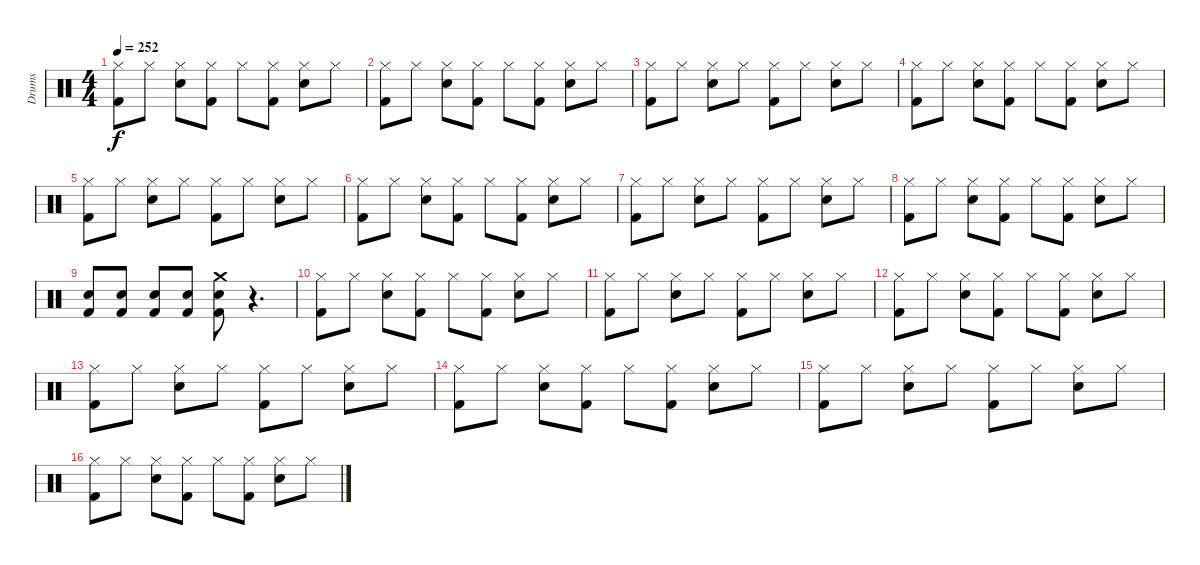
\track ("Drums" "Drums") {instrument percussion}
\staff {score}
\articulation defaults
\ts (4 4)
\tempo 252
\clef neutral
\ks c
("Kick (hit) 2" "Hi-Hat (closed)").8{dy f} "Hi-Hat (closed)".8 ("Snare (hit) 2" "Hi-Hat (closed)").8 ("Kick (hit) 2" "Hi-Hat (closed)").8 "Hi-Hat (closed)".8 ("Kick (hit) 2" "Hi-Hat (closed)").8 ("Snare (hit) 2" "Hi-Hat (closed)").8 "Hi-Hat (closed)".8 |
("Kick (hit) 2" "Hi-Hat (closed)").8 "Hi-Hat (closed)".8 ("Snare (hit) 2" "Hi-Hat (closed)").8 ("Kick (hit) 2" "Hi-Hat (closed)").8 "Hi-Hat (closed)".8 ("Kick (hit) 2" "Hi-Hat (closed)").8 ("Snare (hit) 2" "Hi-Hat (closed)").8 "Hi-Hat (closed)".8 |
("Kick (hit) 2" "Hi-Hat (closed)").8 "Hi-Hat (closed)".8 ("Snare (hit) 2" "Hi-Hat (closed)").8 "Hi-Hat (closed)".8 ("Kick (hit) 2" "Hi-Hat (closed)").8 "Hi-Hat (closed)".8 ("Snare (hit) 2" "Hi-Hat (closed)").8 "Hi-Hat (closed)".8 |
("Kick (hit) 2" "Hi-Hat (closed)").8 "Hi-Hat (closed)".8 ("Snare (hit) 2" "Hi-Hat (closed)").8 ("Kick (hit) 2" "Hi-Hat (closed)").8 "Hi-Hat (closed)".8 ("Kick (hit) 2" "Hi-Hat (closed)").8 ("Snare (hit) 2" "Hi-Hat (closed)").8 "Hi-Hat (closed)".8 |
("Kick (hit) 2" "Hi-Hat (closed)").8 "Hi-Hat (closed)".8 ("Snare (hit) 2" "Hi-Hat (closed)").8 "Hi-Hat (closed)".8 ("Kick (hit) 2" "Hi-Hat (closed)").8 "Hi-Hat (closed)".8 ("Snare (hit) 2" "Hi-Hat (closed)").8 "Hi-Hat (closed)".8 |
("Kick (hit) 2" "Hi-Hat (closed)").8 "Hi-Hat (closed)".8 ("Snare (hit) 2" "Hi-Hat (closed)").8 ("Kick (hit) 2" "Hi-Hat (closed)").8 "Hi-Hat (closed)".8 ("Kick (hit) 2" "Hi-Hat (closed)").8 ("Snare (hit) 2" "Hi-Hat (closed)").8 "Hi-Hat (closed)".8 |
("Kick (hit) 2" "Hi-Hat (closed)").8 "Hi-Hat (closed)".8 ("Snare (hit) 2" "Hi-Hat (closed)").8 "Hi-Hat (closed)".8 ("Kick (hit) 2" "Hi-Hat (closed)").8 "Hi-Hat (closed)".8 ("Snare (hit) 2" "Hi-Hat (closed)").8 "Hi-Hat (closed)".8 |
("Kick (hit) 2" "Hi-Hat (closed)").8 "Hi-Hat (closed)".8 ("Snare (hit) 2" "Hi-Hat (closed)").8 ("Kick (hit) 2" "Hi-Hat (closed)").8 "Hi-Hat (closed)".8 ("Kick (hit) 2" "Hi-Hat (closed)").8 ("Snare (hit) 2" "Hi-Hat (closed)").8 "Hi-Hat (closed)".8 |
("Kick (hit) 2" "Snare (hit) 2").8 ("Kick (hit) 2" "Snare (hit) 2").8 ("Kick (hit) 2" "Snare (hit) 2").8 ("Kick (hit) 2" "Snare (hit) 2").8 ("Kick (hit) 2" "Snare (hit) 2" "Crash medium (hit)").8 r.4{d} |
("Kick (hit) 2" "Hi-Hat (closed)").8 "Hi-Hat (closed)".8 ("Snare (hit) 2" "Hi-Hat (closed)").8 ("Kick (hit) 2" "Hi-Hat (closed)").8 "Hi-Hat (closed)".8 ("Kick (hit) 2" "Hi-Hat (closed)").8 ("Snare (hit) 2" "Hi-Hat (closed)").8 "Hi-Hat (closed)".8 |
("Kick (hit) 2" "Hi-Hat (closed)").8 "Hi-Hat (closed)".8 ("Snare (hit) 2" "Hi-Hat (closed)").8 "Hi-Hat (closed)".8 ("Kick (hit) 2" "Hi-Hat (closed)").8 "Hi-Hat (closed)".8 ("Snare (hit) 2" "Hi-Hat (closed)").8 "Hi-Hat (closed)".8 |
("Kick (hit) 2" "Hi-Hat (closed)").8 "Hi-Hat (closed)".8 ("Snare (hit) 2" "Hi-Hat (closed)").8 ("Kick (hit) 2" "Hi-Hat (closed)").8 "Hi-Hat (closed)".8 ("Kick (hit) 2" "Hi-Hat (closed)").8 ("Snare (hit) 2" "Hi-Hat (closed)").8 "Hi-Hat (closed)".8 |
("Kick (hit) 2" "Hi-Hat (closed)").8 "Hi-Hat (closed)".8 ("Snare (hit) 2" "Hi-Hat (closed)").8 "Hi-Hat (closed)".8 ("Kick (hit) 2" "Hi-Hat (closed)").8 "Hi-Hat (closed)".8 ("Snare (hit) 2" "Hi-Hat (closed)").8 "Hi-Hat (closed)".8 |
("Kick (hit) 2" "Hi-Hat (closed)").8 "Hi-Hat (closed)".8 ("Snare (hit) 2" "Hi-Hat (closed)").8 ("Kick (hit) 2" "Hi-Hat (closed)").8 "Hi-Hat (closed)".8 ("Kick (hit) 2" "Hi-Hat (closed)").8 ("Snare (hit) 2" "Hi-Hat (closed)").8 "Hi-Hat (closed)".8 |
("Kick (hit) 2" "Hi-Hat (closed)").8 "Hi-Hat (closed)".8 ("Snare (hit) 2" "Hi-Hat (closed)").8 "Hi-Hat (closed)".8 ("Kick (hit) 2" "Hi-Hat (closed)").8 "Hi-Hat (closed)".8 ("Snare (hit) 2" "Hi-Hat (closed)").8 "Hi-Hat (closed)".8 |
("Kick (hit) 2" "Hi-Hat (closed)").8 "Hi-Hat (closed)".8 ("Snare (hit) 2" "Hi-Hat (closed)").8 ("Kick (hit) 2" "Hi-Hat (closed)").8 "Hi-Hat (closed)".8 ("Kick (hit) 2" "Hi-Hat (closed)").8 ("Snare (hit) 2" "Hi-Hat (closed)").8 "Hi-Hat (closed)".8
